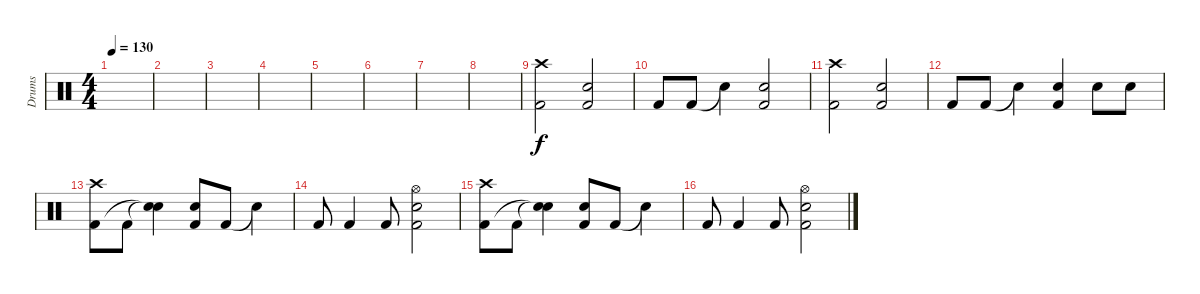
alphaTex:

\track ("Drums" "Drums") {instrument percussion}
\staff {score}
\articulation defaults
\ts (4 4)
\tempo 130
\clef neutral
\ks c
|
|
|
|
|
|
|
|
("Crash high (hit)" "Kick (hit) 2").2 ("Electric Snare (hit)" "Kick (hit) 2").2 |
"Kick (hit) 2".8 "Kick (hit) 2".8 "Snare (hit)"{t}.4 ("Electric Snare (hit)" "Kick (hit) 2").2 |
("Crash high (hit)" "Kick (hit) 2").2 ("Electric Snare (hit)" "Kick (hit) 2").2 |
"Kick (hit) 2".8 "Kick (hit) 2".8 "Snare (hit)"{t}.4 ("Electric Snare (hit)" "Kick (hit) 2").4 "Electric Snare (hit)".8 "Electric Snare (hit)".8 |
("Crash high (hit)" "Kick (hit) 2").8 "Kick (hit) 2".8 ("Snare (hit)"{t} "Snare (hit)"{t}).4 ("Electric Snare (hit)" "Kick (hit) 2").8 "Kick (hit) 2".8 "Snare (hit)"{t}.4 |
"Kick (hit) 2".8 "Kick (hit) 2".4 "Kick (hit) 2".8 ("Hi-Hat (open)" "Electric Snare (hit)" "Kick (hit) 2").2 |
("Crash high (hit)" "Kick (hit) 2").8 "Kick (hit) 2".8 ("Snare (hit)"{t} "Snare (hit)"{t}).4 ("Electric Snare (hit)" "Kick (hit) 2").8 "Kick (hit) 2".8 "Snare (hit)"{t}.4 |
"Kick (hit) 2".8 "Kick (hit) 2".4 "Kick (hit) 2".8 ("Hi-Hat (open)" "Electric Snare (hit)" "Kick (hit) 2").2
